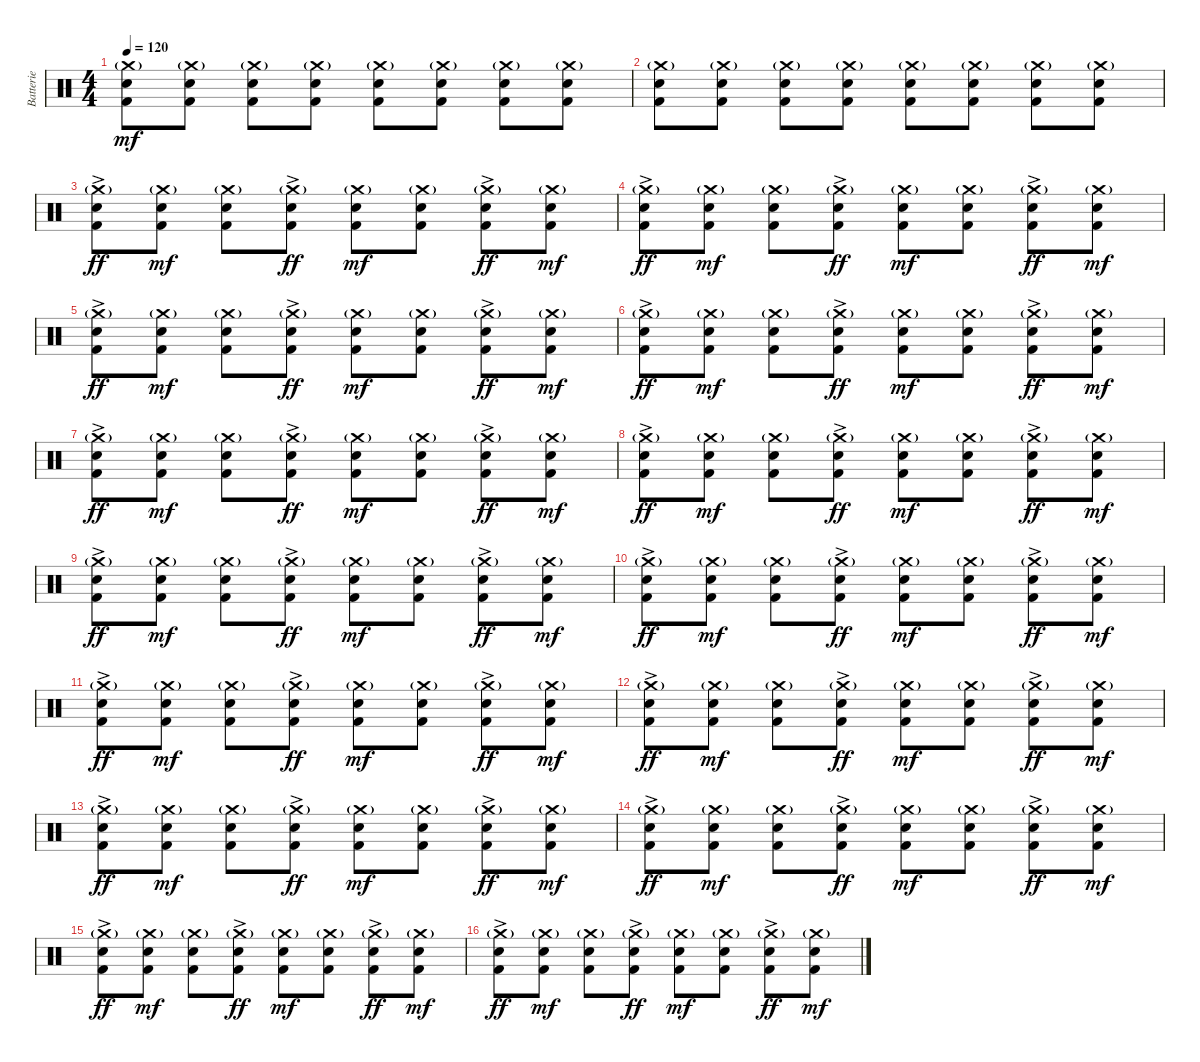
\track ("Batterie" "Batterie") {instrument percussion}
\staff {score}
\articulation defaults
\ts (4 4)
\tempo 120
\clef neutral
\ks c
("Crash medium (hit)"{g} "Electric Snare (hit)" "Kick (hit) 2").8{dy mf} ("Crash medium (hit)"{g} "Electric Snare (hit)" "Kick (hit) 2").8 ("Crash medium (hit)"{g} "Electric Snare (hit)" "Kick (hit) 2").8 ("Crash medium (hit)"{g} "Electric Snare (hit)" "Kick (hit) 2").8 ("Crash medium (hit)"{g} "Electric Snare (hit)" "Kick (hit) 2").8 ("Crash medium (hit)"{g} "Electric Snare (hit)" "Kick (hit) 2").8 ("Crash medium (hit)"{g} "Electric Snare (hit)" "Kick (hit) 2").8 ("Crash medium (hit)"{g} "Electric Snare (hit)" "Kick (hit) 2").8 |
("Crash medium (hit)"{g} "Electric Snare (hit)" "Kick (hit) 2").8 ("Crash medium (hit)"{g} "Electric Snare (hit)" "Kick (hit) 2").8 ("Crash medium (hit)"{g} "Electric Snare (hit)" "Kick (hit) 2").8 ("Crash medium (hit)"{g} "Electric Snare (hit)" "Kick (hit) 2").8 ("Crash medium (hit)"{g} "Electric Snare (hit)" "Kick (hit) 2").8 ("Crash medium (hit)"{g} "Electric Snare (hit)" "Kick (hit) 2").8 ("Crash medium (hit)"{g} "Electric Snare (hit)" "Kick (hit) 2").8 ("Crash medium (hit)"{g} "Electric Snare (hit)" "Kick (hit) 2").8 |
("Crash medium (hit)"{g} "Electric Snare (hit)"{ac} "Kick (hit) 2").8{dy ff} ("Crash medium (hit)"{g} "Electric Snare (hit)" "Kick (hit) 2").8{dy mf} ("Crash medium (hit)"{g} "Electric Snare (hit)" "Kick (hit) 2").8 ("Crash medium (hit)"{g} "Electric Snare (hit)"{ac} "Kick (hit) 2").8{dy ff} ("Crash medium (hit)"{g} "Electric Snare (hit)" "Kick (hit) 2").8{dy mf} ("Crash medium (hit)"{g} "Electric Snare (hit)" "Kick (hit) 2").8 ("Crash medium (hit)"{g} "Electric Snare (hit)"{ac} "Kick (hit) 2").8{dy ff} ("Crash medium (hit)"{g} "Electric Snare (hit)" "Kick (hit) 2").8{dy mf} |
("Crash medium (hit)"{g} "Electric Snare (hit)"{ac} "Kick (hit) 2").8{dy ff} ("Crash medium (hit)"{g} "Electric Snare (hit)" "Kick (hit) 2").8{dy mf} ("Crash medium (hit)"{g} "Electric Snare (hit)" "Kick (hit) 2").8 ("Crash medium (hit)"{g} "Electric Snare (hit)"{ac} "Kick (hit) 2").8{dy ff} ("Crash medium (hit)"{g} "Electric Snare (hit)" "Kick (hit) 2").8{dy mf} ("Crash medium (hit)"{g} "Electric Snare (hit)" "Kick (hit) 2").8 ("Crash medium (hit)"{g} "Electric Snare (hit)"{ac} "Kick (hit) 2").8{dy ff} ("Crash medium (hit)"{g} "Electric Snare (hit)" "Kick (hit) 2").8{dy mf} |
("Crash medium (hit)"{g} "Electric Snare (hit)"{ac} "Kick (hit) 2").8{dy ff} ("Crash medium (hit)"{g} "Electric Snare (hit)" "Kick (hit) 2").8{dy mf} ("Crash medium (hit)"{g} "Electric Snare (hit)" "Kick (hit) 2").8 ("Crash medium (hit)"{g} "Electric Snare (hit)"{ac} "Kick (hit) 2").8{dy ff} ("Crash medium (hit)"{g} "Electric Snare (hit)" "Kick (hit) 2").8{dy mf} ("Crash medium (hit)"{g} "Electric Snare (hit)" "Kick (hit) 2").8 ("Crash medium (hit)"{g} "Electric Snare (hit)"{ac} "Kick (hit) 2").8{dy ff} ("Crash medium (hit)"{g} "Electric Snare (hit)" "Kick (hit) 2").8{dy mf} |
("Crash medium (hit)"{g} "Electric Snare (hit)"{ac} "Kick (hit) 2").8{dy ff} ("Crash medium (hit)"{g} "Electric Snare (hit)" "Kick (hit) 2").8{dy mf} ("Crash medium (hit)"{g} "Electric Snare (hit)" "Kick (hit) 2").8 ("Crash medium (hit)"{g} "Electric Snare (hit)"{ac} "Kick (hit) 2").8{dy ff} ("Crash medium (hit)"{g} "Electric Snare (hit)" "Kick (hit) 2").8{dy mf} ("Crash medium (hit)"{g} "Electric Snare (hit)" "Kick (hit) 2").8 ("Crash medium (hit)"{g} "Electric Snare (hit)"{ac} "Kick (hit) 2").8{dy ff} ("Crash medium (hit)"{g} "Electric Snare (hit)" "Kick (hit) 2").8{dy mf} |
("Crash medium (hit)"{g} "Electric Snare (hit)"{ac} "Kick (hit) 2").8{dy ff} ("Crash medium (hit)"{g} "Electric Snare (hit)" "Kick (hit) 2").8{dy mf} ("Crash medium (hit)"{g} "Electric Snare (hit)" "Kick (hit) 2").8 ("Crash medium (hit)"{g} "Electric Snare (hit)"{ac} "Kick (hit) 2").8{dy ff} ("Crash medium (hit)"{g} "Electric Snare (hit)" "Kick (hit) 2").8{dy mf} ("Crash medium (hit)"{g} "Electric Snare (hit)" "Kick (hit) 2").8 ("Crash medium (hit)"{g} "Electric Snare (hit)"{ac} "Kick (hit) 2").8{dy ff} ("Crash medium (hit)"{g} "Electric Snare (hit)" "Kick (hit) 2").8{dy mf} |
("Crash medium (hit)"{g} "Electric Snare (hit)"{ac} "Kick (hit) 2").8{dy ff} ("Crash medium (hit)"{g} "Electric Snare (hit)" "Kick (hit) 2").8{dy mf} ("Crash medium (hit)"{g} "Electric Snare (hit)" "Kick (hit) 2").8 ("Crash medium (hit)"{g} "Electric Snare (hit)"{ac} "Kick (hit) 2").8{dy ff} ("Crash medium (hit)"{g} "Electric Snare (hit)" "Kick (hit) 2").8{dy mf} ("Crash medium (hit)"{g} "Electric Snare (hit)" "Kick (hit) 2").8 ("Crash medium (hit)"{g} "Electric Snare (hit)"{ac} "Kick (hit) 2").8{dy ff} ("Crash medium (hit)"{g} "Electric Snare (hit)" "Kick (hit) 2").8{dy mf} |
("Crash medium (hit)"{g} "Electric Snare (hit)"{ac} "Kick (hit) 2").8{dy ff} ("Crash medium (hit)"{g} "Electric Snare (hit)" "Kick (hit) 2").8{dy mf} ("Crash medium (hit)"{g} "Electric Snare (hit)" "Kick (hit) 2").8 ("Crash medium (hit)"{g} "Electric Snare (hit)"{ac} "Kick (hit) 2").8{dy ff} ("Crash medium (hit)"{g} "Electric Snare (hit)" "Kick (hit) 2").8{dy mf} ("Crash medium (hit)"{g} "Electric Snare (hit)" "Kick (hit) 2").8 ("Crash medium (hit)"{g} "Electric Snare (hit)"{ac} "Kick (hit) 2").8{dy ff} ("Crash medium (hit)"{g} "Electric Snare (hit)" "Kick (hit) 2").8{dy mf} |
("Crash medium (hit)"{g} "Electric Snare (hit)"{ac} "Kick (hit) 2").8{dy ff} ("Crash medium (hit)"{g} "Electric Snare (hit)" "Kick (hit) 2").8{dy mf} ("Crash medium (hit)"{g} "Electric Snare (hit)" "Kick (hit) 2").8 ("Crash medium (hit)"{g} "Electric Snare (hit)"{ac} "Kick (hit) 2").8{dy ff} ("Crash medium (hit)"{g} "Electric Snare (hit)" "Kick (hit) 2").8{dy mf} ("Crash medium (hit)"{g} "Electric Snare (hit)" "Kick (hit) 2").8 ("Crash medium (hit)"{g} "Electric Snare (hit)"{ac} "Kick (hit) 2").8{dy ff} ("Crash medium (hit)"{g} "Electric Snare (hit)" "Kick (hit) 2").8{dy mf} |
("Crash medium (hit)"{g} "Electric Snare (hit)"{ac} "Kick (hit) 2").8{dy ff} ("Crash medium (hit)"{g} "Electric Snare (hit)" "Kick (hit) 2").8{dy mf} ("Crash medium (hit)"{g} "Electric Snare (hit)" "Kick (hit) 2").8 ("Crash medium (hit)"{g} "Electric Snare (hit)"{ac} "Kick (hit) 2").8{dy ff} ("Crash medium (hit)"{g} "Electric Snare (hit)" "Kick (hit) 2").8{dy mf} ("Crash medium (hit)"{g} "Electric Snare (hit)" "Kick (hit) 2").8 ("Crash medium (hit)"{g} "Electric Snare (hit)"{ac} "Kick (hit) 2").8{dy ff} ("Crash medium (hit)"{g} "Electric Snare (hit)" "Kick (hit) 2").8{dy mf} |
("Crash medium (hit)"{g} "Electric Snare (hit)"{ac} "Kick (hit) 2").8{dy ff} ("Crash medium (hit)"{g} "Electric Snare (hit)" "Kick (hit) 2").8{dy mf} ("Crash medium (hit)"{g} "Electric Snare (hit)" "Kick (hit) 2").8 ("Crash medium (hit)"{g} "Electric Snare (hit)"{ac} "Kick (hit) 2").8{dy ff} ("Crash medium (hit)"{g} "Electric Snare (hit)" "Kick (hit) 2").8{dy mf} ("Crash medium (hit)"{g} "Electric Snare (hit)" "Kick (hit) 2").8 ("Crash medium (hit)"{g} "Electric Snare (hit)"{ac} "Kick (hit) 2").8{dy ff} ("Crash medium (hit)"{g} "Electric Snare (hit)" "Kick (hit) 2").8{dy mf} |
("Crash medium (hit)"{g} "Electric Snare (hit)"{ac} "Kick (hit) 2").8{dy ff} ("Crash medium (hit)"{g} "Electric Snare (hit)" "Kick (hit) 2").8{dy mf} ("Crash medium (hit)"{g} "Electric Snare (hit)" "Kick (hit) 2").8 ("Crash medium (hit)"{g} "Electric Snare (hit)"{ac} "Kick (hit) 2").8{dy ff} ("Crash medium (hit)"{g} "Electric Snare (hit)" "Kick (hit) 2").8{dy mf} ("Crash medium (hit)"{g} "Electric Snare (hit)" "Kick (hit) 2").8 ("Crash medium (hit)"{g} "Electric Snare (hit)"{ac} "Kick (hit) 2").8{dy ff} ("Crash medium (hit)"{g} "Electric Snare (hit)" "Kick (hit) 2").8{dy mf} |
("Crash medium (hit)"{g} "Electric Snare (hit)"{ac} "Kick (hit) 2").8{dy ff} ("Crash medium (hit)"{g} "Electric Snare (hit)" "Kick (hit) 2").8{dy mf} ("Crash medium (hit)"{g} "Electric Snare (hit)" "Kick (hit) 2").8 ("Crash medium (hit)"{g} "Electric Snare (hit)"{ac} "Kick (hit) 2").8{dy ff} ("Crash medium (hit)"{g} "Electric Snare (hit)" "Kick (hit) 2").8{dy mf} ("Crash medium (hit)"{g} "Electric Snare (hit)" "Kick (hit) 2").8 ("Crash medium (hit)"{g} "Electric Snare (hit)"{ac} "Kick (hit) 2").8{dy ff} ("Crash medium (hit)"{g} "Electric Snare (hit)" "Kick (hit) 2").8{dy mf} |
("Crash medium (hit)"{g} "Electric Snare (hit)"{ac} "Kick (hit) 2").8{dy ff} ("Crash medium (hit)"{g} "Electric Snare (hit)" "Kick (hit) 2").8{dy mf} ("Crash medium (hit)"{g} "Electric Snare (hit)" "Kick (hit) 2").8 ("Crash medium (hit)"{g} "Electric Snare (hit)"{ac} "Kick (hit) 2").8{dy ff} ("Crash medium (hit)"{g} "Electric Snare (hit)" "Kick (hit) 2").8{dy mf} ("Crash medium (hit)"{g} "Electric Snare (hit)" "Kick (hit) 2").8 ("Crash medium (hit)"{g} "Electric Snare (hit)"{ac} "Kick (hit) 2").8{dy ff} ("Crash medium (hit)"{g} "Electric Snare (hit)" "Kick (hit) 2").8{dy mf} |
("Crash medium (hit)"{g} "Electric Snare (hit)"{ac} "Kick (hit) 2").8{dy ff} ("Crash medium (hit)"{g} "Electric Snare (hit)" "Kick (hit) 2").8{dy mf} ("Crash medium (hit)"{g} "Electric Snare (hit)" "Kick (hit) 2").8 ("Crash medium (hit)"{g} "Electric Snare (hit)"{ac} "Kick (hit) 2").8{dy ff} ("Crash medium (hit)"{g} "Electric Snare (hit)" "Kick (hit) 2").8{dy mf} ("Crash medium (hit)"{g} "Electric Snare (hit)" "Kick (hit) 2").8 ("Crash medium (hit)"{g} "Electric Snare (hit)"{ac} "Kick (hit) 2").8{dy ff} ("Crash medium (hit)"{g} "Electric Snare (hit)" "Kick (hit) 2").8{dy mf}
